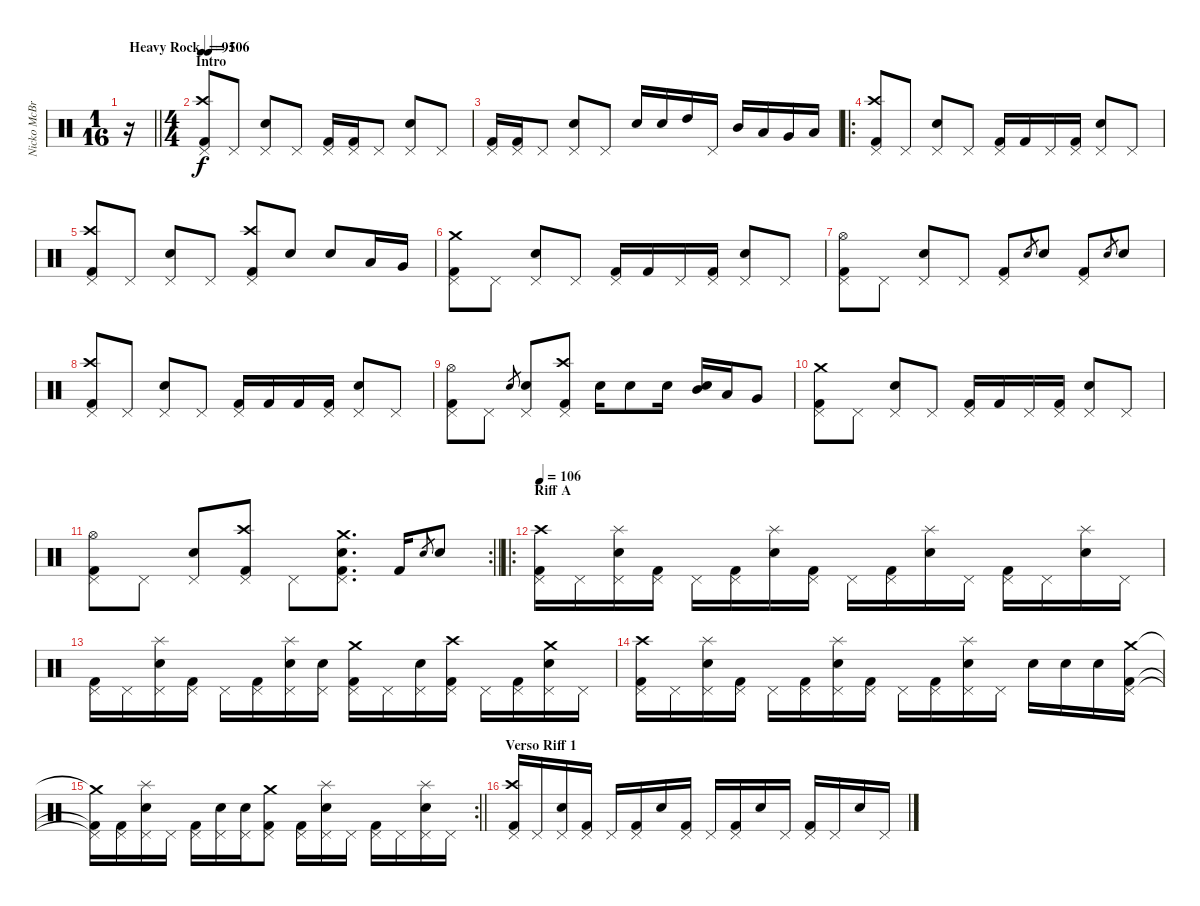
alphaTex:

\track ("Nicko McBrain" "Nicko McBr") {instrument percussion}
\staff {score}
\articulation defaults
\ts (1 16)
\tempo (106 "Heavy Rock")
\clef neutral
\barLineRight lightlight
\ks c
r.16{dy f} |
\ts (4 4)
\section ("" "Intro")
\tempo 95
("Pedal Hi-Hat (hit)" "Crash high (hit)" "Kick (hit) 2").8 "Pedal Hi-Hat (hit)".8 ("Pedal Hi-Hat (hit)" "Snare (hit) 2").8 "Pedal Hi-Hat (hit)".8 ("Pedal Hi-Hat (hit)" "Kick (hit) 2").16 ("Pedal Hi-Hat (hit)" "Kick (hit) 2").16 "Pedal Hi-Hat (hit)".8 ("Pedal Hi-Hat (hit)" "Snare (hit) 2").8 "Pedal Hi-Hat (hit)".8 |
("Pedal Hi-Hat (hit)" "Kick (hit) 2").16 ("Pedal Hi-Hat (hit)" "Kick (hit) 2").16 "Pedal Hi-Hat (hit)".8 ("Pedal Hi-Hat (hit)" "Snare (hit) 2").8 "Pedal Hi-Hat (hit)".8 "Snare (hit) 2".16 "Snare (hit) 2".16 "High Tom (hit)".16 "Pedal Hi-Hat (hit)".16 "Mid Tom (hit)".16 "Low Tom (hit)".16 "Very Low Tom (hit)".16 "Low Floor Tom (hit)".16 |
\ro
("Pedal Hi-Hat (hit)" "Crash high (hit)" "Kick (hit) 2").8 "Pedal Hi-Hat (hit)".8 ("Pedal Hi-Hat (hit)" "Snare (hit) 2").8 "Pedal Hi-Hat (hit)".8 ("Pedal Hi-Hat (hit)" "Kick (hit) 2").16 "Kick (hit) 2".16 "Pedal Hi-Hat (hit)".16 ("Pedal Hi-Hat (hit)" "Kick (hit) 2").16 ("Pedal Hi-Hat (hit)" "Snare (hit) 2").8 "Pedal Hi-Hat (hit)".8 |
("Pedal Hi-Hat (hit)" "Crash high (hit)" "Kick (hit) 2").8 "Pedal Hi-Hat (hit)".8 ("Pedal Hi-Hat (hit)" "Snare (hit) 2").8 "Pedal Hi-Hat (hit)".8 ("Pedal Hi-Hat (hit)" "Crash high (hit)" "Kick (hit) 2").8 "Snare (hit) 2".8 "Snare (hit) 2".8 "Low Tom (hit)".16 "Very Low Tom (hit)".16 |
("Pedal Hi-Hat (hit)" "Crash medium (hit)" "Kick (hit) 2").8 "Pedal Hi-Hat (hit)".8 ("Pedal Hi-Hat (hit)" "Snare (hit) 2").8 "Pedal Hi-Hat (hit)".8 ("Pedal Hi-Hat (hit)" "Kick (hit) 2").16 "Kick (hit) 2".16 "Pedal Hi-Hat (hit)".16 ("Pedal Hi-Hat (hit)" "Kick (hit) 2").16 ("Pedal Hi-Hat (hit)" "Snare (hit) 2").8 "Pedal Hi-Hat (hit)".8 |
("Pedal Hi-Hat (hit)" "Hi-Hat (open)" "Kick (hit) 2").8 "Pedal Hi-Hat (hit)".8 ("Pedal Hi-Hat (hit)" "Snare (hit) 2").8 "Pedal Hi-Hat (hit)".8 ("Pedal Hi-Hat (hit)" "Kick (hit) 2").8 "Snare (hit) 2".8{gr} "Snare (hit) 2".8 ("Pedal Hi-Hat (hit)" "Kick (hit) 2").8 "Snare (hit) 2".8{gr} "Snare (hit) 2".8 |
("Pedal Hi-Hat (hit)" "Crash high (hit)" "Kick (hit) 2").8 "Pedal Hi-Hat (hit)".8 ("Pedal Hi-Hat (hit)" "Snare (hit) 2").8 "Pedal Hi-Hat (hit)".8 ("Pedal Hi-Hat (hit)" "Kick (hit) 2").16 "Kick (hit) 2".16 "Kick (hit) 2".16 ("Pedal Hi-Hat (hit)" "Kick (hit) 2").16 ("Pedal Hi-Hat (hit)" "Snare (hit) 2").8 "Pedal Hi-Hat (hit)".8 |
("Pedal Hi-Hat (hit)" "Hi-Hat (open)" "Kick (hit) 2").8 "Pedal Hi-Hat (hit)".8 "Snare (hit) 2".8{gr} ("Pedal Hi-Hat (hit)" "Snare (hit) 2").8 ("Pedal Hi-Hat (hit)" "Crash high (hit)" "Kick (hit) 2").8 "Snare (hit) 2".16 "Snare (hit) 2".8 "Snare (hit) 2".16 ("Snare (hit) 2" "Mid Tom (hit)").16 "Low Tom (hit)".16 "Very Low Tom (hit)".8 |
("Pedal Hi-Hat (hit)" "Crash medium (hit)" "Kick (hit) 2").8 "Pedal Hi-Hat (hit)".8 ("Pedal Hi-Hat (hit)" "Snare (hit) 2").8 "Pedal Hi-Hat (hit)".8 ("Pedal Hi-Hat (hit)" "Kick (hit) 2").16 "Kick (hit) 2".16 "Pedal Hi-Hat (hit)".16 ("Pedal Hi-Hat (hit)" "Kick (hit) 2").16 ("Pedal Hi-Hat (hit)" "Snare (hit) 2").8 "Pedal Hi-Hat (hit)".8 |
\rc 2
\barLineRight lightlight
("Pedal Hi-Hat (hit)" "Hi-Hat (open)" "Kick (hit) 2").8 "Pedal Hi-Hat (hit)".8 ("Pedal Hi-Hat (hit)" "Snare (hit) 2").8 ("Pedal Hi-Hat (hit)" "Crash high (hit)" "Kick (hit) 2").8 "Pedal Hi-Hat (hit)".8 ("Pedal Hi-Hat (hit)" "Snare (hit) 2" "Crash medium (hit)" "Kick (hit) 2").8{d} "Kick (hit) 2".16 "Snare (hit) 2".8{gr} "Snare (hit) 2".8 |
\ro
\section ("" "Riff A")
\tempo 106
("Pedal Hi-Hat (hit)" "Crash high (hit)" "Kick (hit) 2").16 "Pedal Hi-Hat (hit)".16 ("Pedal Hi-Hat (hit)" "Snare (hit) 2" "Splash (hit)").16 ("Pedal Hi-Hat (hit)" "Kick (hit) 2").16 "Pedal Hi-Hat (hit)".16 ("Pedal Hi-Hat (hit)" "Kick (hit) 2").16 ("Snare (hit) 2" "Splash (hit)").16 ("Pedal Hi-Hat (hit)" "Kick (hit) 2").16 "Pedal Hi-Hat (hit)".16 ("Pedal Hi-Hat (hit)" "Kick (hit) 2").16 ("Snare (hit) 2" "Splash (hit)").16 "Pedal Hi-Hat (hit)".16 ("Pedal Hi-Hat (hit)" "Kick (hit) 2").16 "Pedal Hi-Hat (hit)".16 ("Snare (hit) 2" "Splash (hit)").16 "Pedal Hi-Hat (hit)".16 |
("Pedal Hi-Hat (hit)" "Kick (hit) 2").16 "Pedal Hi-Hat (hit)".16 ("Pedal Hi-Hat (hit)" "Snare (hit) 2" "Splash (hit)").16 ("Pedal Hi-Hat (hit)" "Kick (hit) 2").16 "Pedal Hi-Hat (hit)".16 ("Pedal Hi-Hat (hit)" "Kick (hit) 2").16 ("Pedal Hi-Hat (hit)" "Snare (hit) 2" "Splash (hit)").16 ("Pedal Hi-Hat (hit)" "Snare (hit) 2").16 ("Pedal Hi-Hat (hit)" "Crash medium (hit)" "Kick (hit) 2").16 "Pedal Hi-Hat (hit)".16 ("Pedal Hi-Hat (hit)" "Snare (hit) 2").16 ("Pedal Hi-Hat (hit)" "Crash high (hit)" "Kick (hit) 2").16 "Pedal Hi-Hat (hit)".16 ("Pedal Hi-Hat (hit)" "Kick (hit) 2").16 ("Pedal Hi-Hat (hit)" "Snare (hit) 2" "Crash medium (hit)").16 "Pedal Hi-Hat (hit)".16 |
("Pedal Hi-Hat (hit)" "Crash high (hit)" "Kick (hit) 2").16 "Pedal Hi-Hat (hit)".16 ("Pedal Hi-Hat (hit)" "Snare (hit) 2" "Splash (hit)").16 ("Pedal Hi-Hat (hit)" "Kick (hit) 2").16 "Pedal Hi-Hat (hit)".16 ("Pedal Hi-Hat (hit)" "Kick (hit) 2").16 ("Pedal Hi-Hat (hit)" "Snare (hit) 2" "Splash (hit)").16 ("Pedal Hi-Hat (hit)" "Kick (hit) 2").16 "Pedal Hi-Hat (hit)".16 ("Pedal Hi-Hat (hit)" "Kick (hit) 2").16 ("Pedal Hi-Hat (hit)" "Snare (hit) 2" "Splash (hit)").16 "Pedal Hi-Hat (hit)".16 "Snare (hit) 2".16 "Snare (hit) 2".16 "Snare (hit) 2".16 ("Pedal Hi-Hat (hit)" "Crash medium (hit)" "Kick (hit) 2").16 |
\rc 2
\barLineRight lightlight
("Pedal Hi-Hat (hit)"{t} "Crash medium (hit)"{t} "Kick (hit) 2"{t}).16 ("Pedal Hi-Hat (hit)" "Kick (hit) 2").16 ("Pedal Hi-Hat (hit)" "Snare (hit) 2" "Splash (hit)").16 "Pedal Hi-Hat (hit)".16 ("Pedal Hi-Hat (hit)" "Kick (hit) 2").16 ("Pedal Hi-Hat (hit)" "Snare (hit) 2").16 ("Pedal Hi-Hat (hit)" "Snare (hit) 2").16 ("Pedal Hi-Hat (hit)" "Crash medium (hit)" "Kick (hit) 2").8 ("Pedal Hi-Hat (hit)" "Kick (hit) 2").16 ("Pedal Hi-Hat (hit)" "Snare (hit) 2" "Splash (hit)").16 "Pedal Hi-Hat (hit)".16 ("Pedal Hi-Hat (hit)" "Kick (hit) 2").16 "Pedal Hi-Hat (hit)".16 ("Pedal Hi-Hat (hit)" "Snare (hit) 2" "Splash (hit)").16 "Pedal Hi-Hat (hit)".16 |
\section ("" "Verso Riff 1")
("Pedal Hi-Hat (hit)" "Crash high (hit)" "Kick (hit) 2").16 "Pedal Hi-Hat (hit)".16 ("Pedal Hi-Hat (hit)" "Snare (hit) 2").16 ("Pedal Hi-Hat (hit)" "Kick (hit) 2").16 "Pedal Hi-Hat (hit)".16 ("Pedal Hi-Hat (hit)" "Kick (hit) 2").16 "Snare (hit) 2".16 ("Pedal Hi-Hat (hit)" "Kick (hit) 2").16 "Pedal Hi-Hat (hit)".16 ("Pedal Hi-Hat (hit)" "Kick (hit) 2").16 "Snare (hit) 2".16 "Pedal Hi-Hat (hit)".16 ("Pedal Hi-Hat (hit)" "Kick (hit) 2").16 "Pedal Hi-Hat (hit)".16 "Snare (hit) 2".16 "Pedal Hi-Hat (hit)".16
